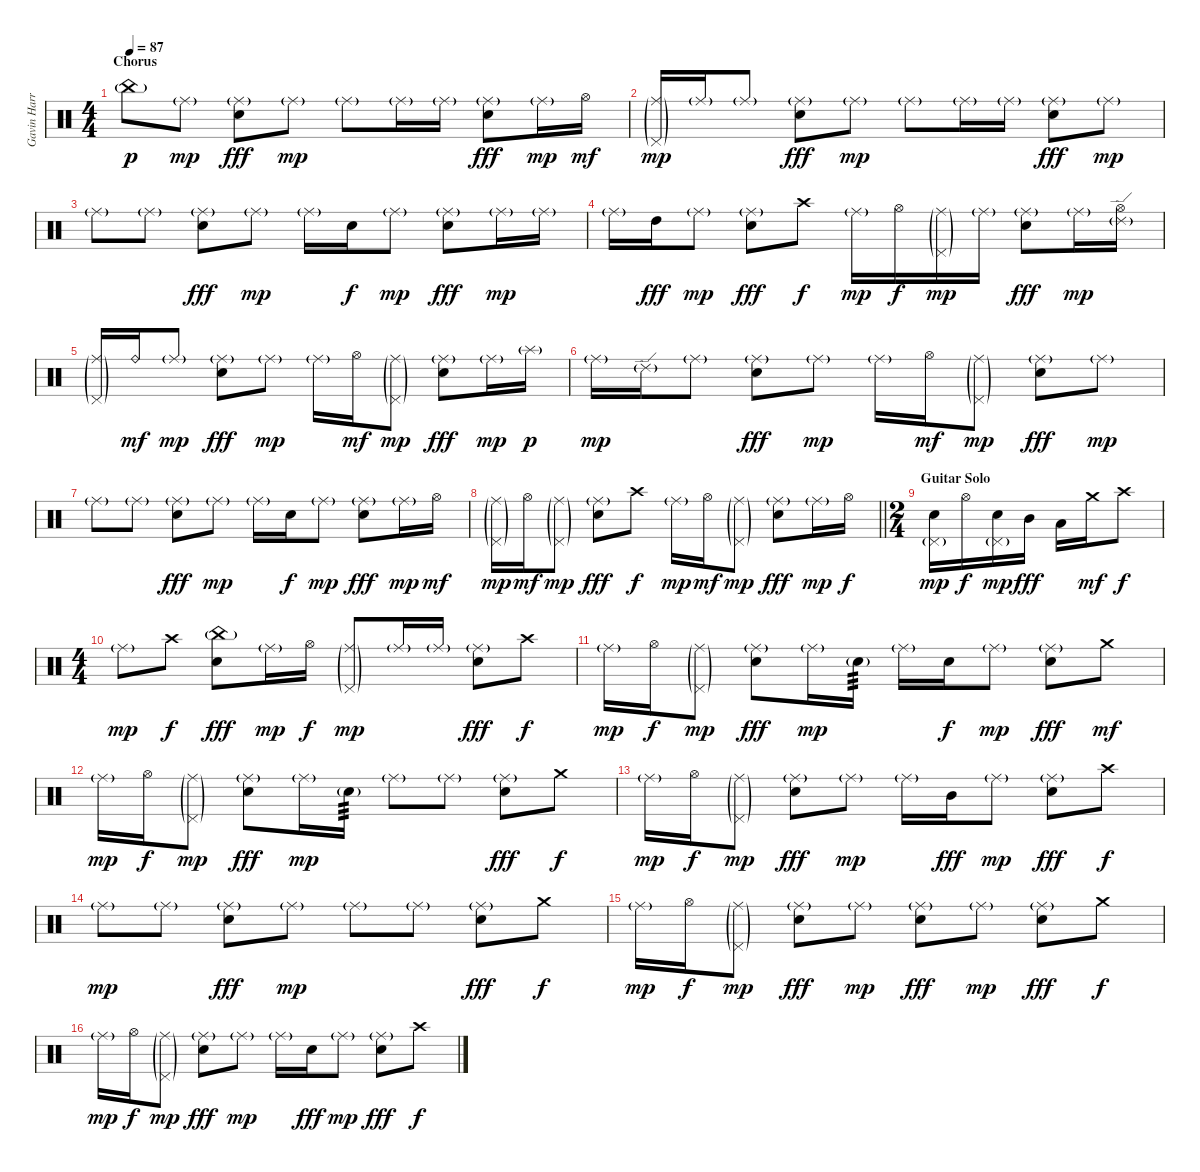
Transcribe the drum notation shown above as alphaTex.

\track ("Gavin Harrison Drums" "Gavin Harr") {instrument percussion}
\staff {score}
\articulation defaults
\ts (4 4)
\section ("" "Chorus")
\tempo 87
\clef neutral
\ks aminor "China (hit)"{g}.8{dy p} "Ride (middle)"{g}.8{dy mp}
("Ride (middle)"{g} "Electric Snare (hit)").8{dy fff} "Ride (middle)"{g}.8{dy mp} "Ride (middle)"{g}.8 "Ride (middle)"{g}.16 "Ride (middle)"{g}.16 ("Ride (middle)"{g} "Electric Snare (hit)").8{dy fff} "Ride (middle)"{g}.16{dy mp} "Hi-Hat (open)".16{dy mf} |
("Ride (middle)"{g} "Pedal Hi-Hat (hit)"{g}).16{dy mp} "Ride (middle)"{g}.16 "Ride (middle)"{g}.8 ("Ride (middle)"{g} "Electric Snare (hit)").8{dy fff} "Ride (middle)"{g}.8{dy mp} "Ride (middle)"{g}.8 "Ride (middle)"{g}.16 "Ride (middle)"{g}.16 ("Ride (middle)"{g} "Electric Snare (hit)").8{dy fff} "Ride (middle)"{g}.8{dy mp} |
"Ride (middle)"{g}.8 "Ride (middle)"{g}.8 ("Ride (middle)"{g} "Electric Snare (hit)").8{dy fff} "Ride (middle)"{g}.8{dy mp} "Ride (middle)"{g}.16 "Electric Snare (hit)".16{dy f} "Ride (middle)"{g}.8{dy mp} ("Ride (middle)"{g} "Electric Snare (hit)").8{dy fff} "Ride (middle)"{g}.16{dy mp} "Ride (middle)"{g}.16 |
"Ride (middle)"{g}.16 "High Tom (hit)".16{dy fff} "Ride (middle)"{g}.8{dy mp} ("Ride (middle)"{g} "Electric Snare (hit)").8{dy fff} "Crash high (hit)".8{dy f} "Ride (middle)"{g}.16{dy mp} "Hi-Hat (open)".16{dy f} ("Ride (middle)"{g} "Pedal Hi-Hat (hit)"{g}).16{dy mp} "Ride (middle)"{g}.16 ("Ride (middle)"{g} "Electric Snare (hit)").8{dy fff} "Ride (middle)"{g}.16{dy mp} ("Hi-Hat (open)" "Ride (edge) 2"{g}).16 |
("Ride (middle)"{g} "Pedal Hi-Hat (hit)"{g}).16 "Ride (bell)".16{dy mf} "Ride (middle)"{g}.8{dy mp} ("Ride (middle)"{g} "Electric Snare (hit)").8{dy fff} "Ride (middle)"{g}.8{dy mp} "Ride (middle)"{g}.16 "Hi-Hat (open)".16{dy mf} ("Ride (middle)"{g} "Pedal Hi-Hat (hit)"{g}).8{dy mp} ("Ride (middle)"{g} "Electric Snare (hit)").8{dy fff} "Ride (middle)"{g}.16{dy mp} "Splash (hit)"{g}.16{dy p} |
"Ride (middle)"{g}.16{dy mp} "Ride (edge) 2"{g}.16 "Ride (middle)"{g}.8 ("Ride (middle)"{g} "Electric Snare (hit)").8{dy fff} "Ride (middle)"{g}.8{dy mp} "Ride (middle)"{g}.16 "Hi-Hat (open)".16{dy mf} ("Ride (middle)"{g} "Pedal Hi-Hat (hit)"{g}).8{dy mp} ("Ride (middle)"{g} "Electric Snare (hit)").8{dy fff} "Ride (middle)"{g}.8{dy mp} |
"Ride (middle)"{g}.8 "Ride (middle)"{g}.8 ("Ride (middle)"{g} "Electric Snare (hit)").8{dy fff} "Ride (middle)"{g}.8{dy mp} "Ride (middle)"{g}.16 "Electric Snare (hit)".16{dy f} "Ride (middle)"{g}.8{dy mp} ("Ride (middle)"{g} "Electric Snare (hit)").8{dy fff} "Ride (middle)"{g}.16{dy mp} "Hi-Hat (open)".16{dy mf} |
\barLineRight lightlight
("Ride (middle)"{g} "Pedal Hi-Hat (hit)"{g}).16{dy mp} "Hi-Hat (open)".16{dy mf} ("Ride (middle)"{g} "Pedal Hi-Hat (hit)"{g}).8{dy mp} ("Ride (middle)"{g} "Electric Snare (hit)").8{dy fff} "Crash high (hit)".8{dy f} "Ride (middle)"{g}.16{dy mp} "Hi-Hat (open)".16{dy mf} ("Ride (middle)"{g} "Pedal Hi-Hat (hit)"{g}).8{dy mp} ("Ride (middle)"{g} "Electric Snare (hit)").8{dy fff} "Ride (middle)"{g}.16{dy mp} "Hi-Hat (open)".16{dy f} |
\ts (2 4)
\section ("" "Guitar Solo")
("Electric Snare (hit)" "Pedal Hi-Hat (hit)"{g}).16{dy mp} "Hi-Hat (open)".16{dy f} ("Electric Snare (hit)" "Pedal Hi-Hat (hit)"{g}).16{dy mp} "Mid Tom (hit)".16{dy fff} "Low Tom (hit)".16 "Crash medium (hit)".16{dy mf} "Crash high (hit)".8{dy f} |
\ts (4 4)
"Ride (middle)"{g}.8{dy mp} "Crash high (hit)".8{dy f} ("China (hit)"{g} "Electric Snare (hit)").8{dy fff} "Ride (middle)"{g}.16{dy mp} "Hi-Hat (open)".16{dy f} ("Ride (middle)"{g} "Pedal Hi-Hat (hit)"{g}).8{dy mp} "Ride (middle)"{g}.16 "Ride (middle)"{g}.16 ("Ride (middle)"{g} "Electric Snare (hit)").8{dy fff} "Crash high (hit)".8{dy f} |
"Ride (middle)"{g}.16{dy mp} "Hi-Hat (open)".16{dy f} ("Ride (middle)"{g} "Pedal Hi-Hat (hit)"{g}).8{dy mp} ("Ride (middle)"{g} "Electric Snare (hit)").8{dy fff} "Ride (middle)"{g}.16{dy mp} "Electric Snare (hit)"{g}.16{tp 3} "Ride (middle)"{g}.16 "Electric Snare (hit)".16{dy f} "Ride (middle)"{g}.8{dy mp} ("Ride (middle)"{g} "Electric Snare (hit)").8{dy fff} "Crash medium (hit)".8{dy mf} |
"Ride (middle)"{g}.16{dy mp} "Hi-Hat (open)".16{dy f} ("Ride (middle)"{g} "Pedal Hi-Hat (hit)"{g}).8{dy mp} ("Ride (middle)"{g} "Electric Snare (hit)").8{dy fff} "Ride (middle)"{g}.16{dy mp} "Electric Snare (hit)"{g}.16{tp 3} "Ride (middle)"{g}.8 "Ride (middle)"{g}.8 ("Ride (middle)"{g} "Electric Snare (hit)").8{dy fff} "Crash medium (hit)".8{dy f} |
"Ride (middle)"{g}.16{dy mp} "Hi-Hat (open)".16{dy f} ("Ride (middle)"{g} "Pedal Hi-Hat (hit)"{g}).8{dy mp} ("Ride (middle)"{g} "Electric Snare (hit)").8{dy fff} "Ride (middle)"{g}.8{dy mp} "Ride (middle)"{g}.16 "Mid Tom (hit)".16{dy fff} "Ride (middle)"{g}.8{dy mp} ("Ride (middle)"{g} "Electric Snare (hit)").8{dy fff} "Crash high (hit)".8{dy f} |
"Ride (middle)"{g}.8{dy mp} "Ride (middle)"{g}.8 ("Ride (middle)"{g} "Electric Snare (hit)").8{dy fff} "Ride (middle)"{g}.8{dy mp} "Ride (middle)"{g}.8 "Ride (middle)"{g}.8 ("Ride (middle)"{g} "Electric Snare (hit)").8{dy fff} "Crash medium (hit)".8{dy f} |
"Ride (middle)"{g}.16{dy mp} "Hi-Hat (open)".16{dy f} ("Ride (middle)"{g} "Pedal Hi-Hat (hit)"{g}).8{dy mp} ("Ride (middle)"{g} "Electric Snare (hit)").8{dy fff} "Ride (middle)"{g}.8{dy mp} ("Ride (middle)"{g} "Electric Snare (hit)").8{dy fff} "Ride (middle)"{g}.8{dy mp} ("Ride (middle)"{g} "Electric Snare (hit)").8{dy fff} "Crash medium (hit)".8{dy f} |
"Ride (middle)"{g}.16{dy mp} "Hi-Hat (open)".16{dy f} ("Ride (middle)"{g} "Pedal Hi-Hat (hit)"{g}).8{dy mp} ("Ride (middle)"{g} "Electric Snare (hit)").8{dy fff} "Ride (middle)"{g}.8{dy mp} "Ride (middle)"{g}.16 "Electric Snare (hit)".16{dy fff} "Ride (middle)"{g}.8{dy mp} ("Ride (middle)"{g} "Electric Snare (hit)").8{dy fff} "Crash high (hit)".8{dy f}
